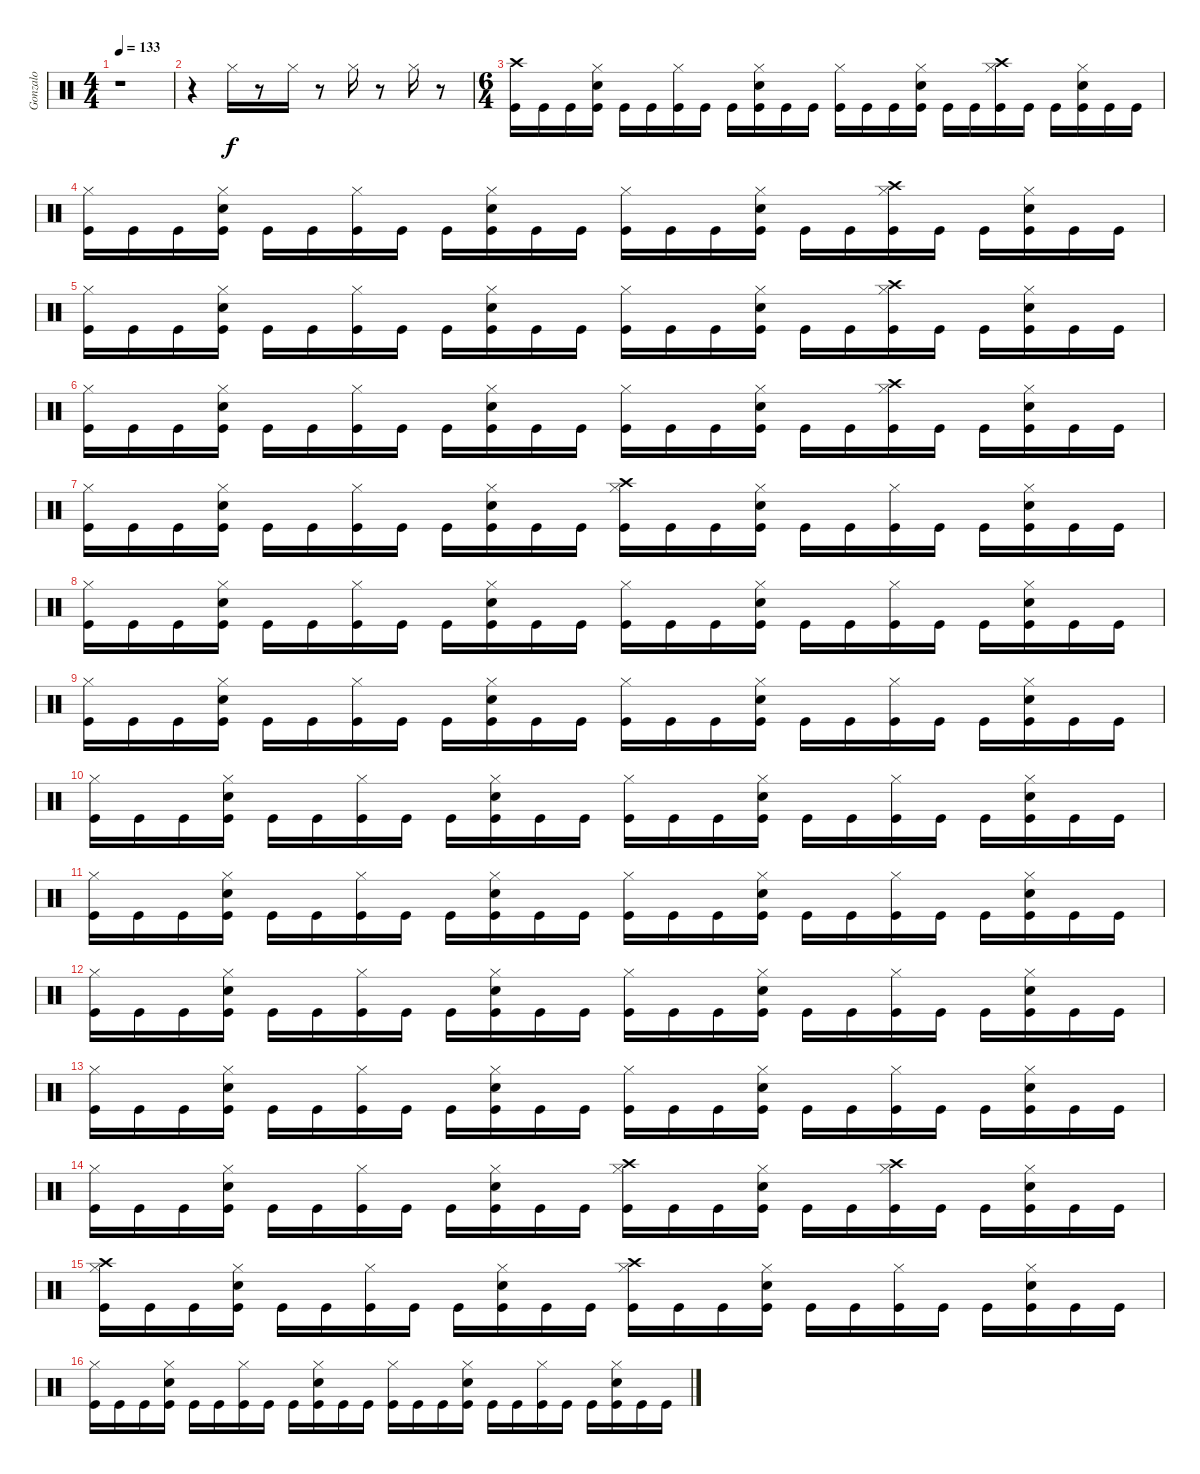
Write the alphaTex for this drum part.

\track ("Gonzalo" "Gonzalo") {instrument percussion}
\staff {score}
\articulation defaults
\ts (4 4)
\tempo 133
\clef neutral
\ks c
r.1{dy f} |
r.4 "Hi-Hat (closed)".16 r.8 "Hi-Hat (closed)".16 r.8 "Hi-Hat (closed)".16 r.8 "Hi-Hat (closed)".16 r.8 |
\ts (6 4)
("Kick (hit)" "Crash high (hit)").16 "Kick (hit)".16 "Kick (hit)".16 ("Kick (hit)" "Hi-Hat (closed)" "Electric Snare (hit)").16 "Kick (hit)".16 "Kick (hit)".16 ("Kick (hit)" "Hi-Hat (closed)").16 "Kick (hit)".16 "Kick (hit)".16 ("Kick (hit)" "Hi-Hat (closed)" "Electric Snare (hit)").16 "Kick (hit)".16 "Kick (hit)".16 ("Kick (hit)" "Hi-Hat (closed)").16 "Kick (hit)".16 "Kick (hit)".16 ("Kick (hit)" "Hi-Hat (closed)" "Electric Snare (hit)").16 "Kick (hit)".16 "Kick (hit)".16 ("Kick (hit)" "Hi-Hat (closed)" "Crash high (hit)").16 "Kick (hit)".16 "Kick (hit)".16 ("Kick (hit)" "Hi-Hat (closed)" "Electric Snare (hit)").16 "Kick (hit)".16 "Kick (hit)".16 |
("Kick (hit)" "Hi-Hat (closed)").16 "Kick (hit)".16 "Kick (hit)".16 ("Kick (hit)" "Hi-Hat (closed)" "Electric Snare (hit)").16 "Kick (hit)".16 "Kick (hit)".16 ("Kick (hit)" "Hi-Hat (closed)").16 "Kick (hit)".16 "Kick (hit)".16 ("Kick (hit)" "Hi-Hat (closed)" "Electric Snare (hit)").16 "Kick (hit)".16 "Kick (hit)".16 ("Kick (hit)" "Hi-Hat (closed)").16 "Kick (hit)".16 "Kick (hit)".16 ("Kick (hit)" "Hi-Hat (closed)" "Electric Snare (hit)").16 "Kick (hit)".16 "Kick (hit)".16 ("Kick (hit)" "Hi-Hat (closed)" "Crash high (hit)").16 "Kick (hit)".16 "Kick (hit)".16 ("Kick (hit)" "Hi-Hat (closed)" "Electric Snare (hit)").16 "Kick (hit)".16 "Kick (hit)".16 |
("Kick (hit)" "Hi-Hat (closed)").16 "Kick (hit)".16 "Kick (hit)".16 ("Kick (hit)" "Hi-Hat (closed)" "Electric Snare (hit)").16 "Kick (hit)".16 "Kick (hit)".16 ("Kick (hit)" "Hi-Hat (closed)").16 "Kick (hit)".16 "Kick (hit)".16 ("Kick (hit)" "Hi-Hat (closed)" "Electric Snare (hit)").16 "Kick (hit)".16 "Kick (hit)".16 ("Kick (hit)" "Hi-Hat (closed)").16 "Kick (hit)".16 "Kick (hit)".16 ("Kick (hit)" "Hi-Hat (closed)" "Electric Snare (hit)").16 "Kick (hit)".16 "Kick (hit)".16 ("Kick (hit)" "Hi-Hat (closed)" "Crash high (hit)").16 "Kick (hit)".16 "Kick (hit)".16 ("Kick (hit)" "Hi-Hat (closed)" "Electric Snare (hit)").16 "Kick (hit)".16 "Kick (hit)".16 |
("Kick (hit)" "Hi-Hat (closed)").16 "Kick (hit)".16 "Kick (hit)".16 ("Kick (hit)" "Hi-Hat (closed)" "Electric Snare (hit)").16 "Kick (hit)".16 "Kick (hit)".16 ("Kick (hit)" "Hi-Hat (closed)").16 "Kick (hit)".16 "Kick (hit)".16 ("Kick (hit)" "Hi-Hat (closed)" "Electric Snare (hit)").16 "Kick (hit)".16 "Kick (hit)".16 ("Kick (hit)" "Hi-Hat (closed)").16 "Kick (hit)".16 "Kick (hit)".16 ("Kick (hit)" "Hi-Hat (closed)" "Electric Snare (hit)").16 "Kick (hit)".16 "Kick (hit)".16 ("Kick (hit)" "Hi-Hat (closed)" "Crash high (hit)").16 "Kick (hit)".16 "Kick (hit)".16 ("Kick (hit)" "Hi-Hat (closed)" "Electric Snare (hit)").16 "Kick (hit)".16 "Kick (hit)".16 |
("Kick (hit)" "Hi-Hat (closed)").16 "Kick (hit)".16 "Kick (hit)".16 ("Kick (hit)" "Hi-Hat (closed)" "Electric Snare (hit)").16 "Kick (hit)".16 "Kick (hit)".16 ("Kick (hit)" "Hi-Hat (closed)").16 "Kick (hit)".16 "Kick (hit)".16 ("Kick (hit)" "Hi-Hat (closed)" "Electric Snare (hit)").16 "Kick (hit)".16 "Kick (hit)".16 ("Kick (hit)" "Hi-Hat (closed)" "Crash high (hit)").16 "Kick (hit)".16 "Kick (hit)".16 ("Kick (hit)" "Hi-Hat (closed)" "Electric Snare (hit)").16 "Kick (hit)".16 "Kick (hit)".16 ("Kick (hit)" "Hi-Hat (closed)").16 "Kick (hit)".16 "Kick (hit)".16 ("Kick (hit)" "Hi-Hat (closed)" "Electric Snare (hit)").16 "Kick (hit)".16 "Kick (hit)".16 |
("Kick (hit)" "Hi-Hat (closed)").16 "Kick (hit)".16 "Kick (hit)".16 ("Kick (hit)" "Hi-Hat (closed)" "Electric Snare (hit)").16 "Kick (hit)".16 "Kick (hit)".16 ("Kick (hit)" "Hi-Hat (closed)").16 "Kick (hit)".16 "Kick (hit)".16 ("Kick (hit)" "Hi-Hat (closed)" "Electric Snare (hit)").16 "Kick (hit)".16 "Kick (hit)".16 ("Kick (hit)" "Hi-Hat (closed)").16 "Kick (hit)".16 "Kick (hit)".16 ("Kick (hit)" "Hi-Hat (closed)" "Electric Snare (hit)").16 "Kick (hit)".16 "Kick (hit)".16 ("Kick (hit)" "Hi-Hat (closed)").16 "Kick (hit)".16 "Kick (hit)".16 ("Kick (hit)" "Hi-Hat (closed)" "Electric Snare (hit)").16 "Kick (hit)".16 "Kick (hit)".16 |
("Kick (hit)" "Hi-Hat (closed)").16 "Kick (hit)".16 "Kick (hit)".16 ("Kick (hit)" "Hi-Hat (closed)" "Electric Snare (hit)").16 "Kick (hit)".16 "Kick (hit)".16 ("Kick (hit)" "Hi-Hat (closed)").16 "Kick (hit)".16 "Kick (hit)".16 ("Kick (hit)" "Hi-Hat (closed)" "Electric Snare (hit)").16 "Kick (hit)".16 "Kick (hit)".16 ("Kick (hit)" "Hi-Hat (closed)").16 "Kick (hit)".16 "Kick (hit)".16 ("Kick (hit)" "Hi-Hat (closed)" "Electric Snare (hit)").16 "Kick (hit)".16 "Kick (hit)".16 ("Kick (hit)" "Hi-Hat (closed)").16 "Kick (hit)".16 "Kick (hit)".16 ("Kick (hit)" "Hi-Hat (closed)" "Electric Snare (hit)").16 "Kick (hit)".16 "Kick (hit)".16 |
("Kick (hit)" "Hi-Hat (closed)").16 "Kick (hit)".16 "Kick (hit)".16 ("Kick (hit)" "Hi-Hat (closed)" "Electric Snare (hit)").16 "Kick (hit)".16 "Kick (hit)".16 ("Kick (hit)" "Hi-Hat (closed)").16 "Kick (hit)".16 "Kick (hit)".16 ("Kick (hit)" "Hi-Hat (closed)" "Electric Snare (hit)").16 "Kick (hit)".16 "Kick (hit)".16 ("Kick (hit)" "Hi-Hat (closed)").16 "Kick (hit)".16 "Kick (hit)".16 ("Kick (hit)" "Hi-Hat (closed)" "Electric Snare (hit)").16 "Kick (hit)".16 "Kick (hit)".16 ("Kick (hit)" "Hi-Hat (closed)").16 "Kick (hit)".16 "Kick (hit)".16 ("Kick (hit)" "Hi-Hat (closed)" "Electric Snare (hit)").16 "Kick (hit)".16 "Kick (hit)".16 |
("Kick (hit)" "Hi-Hat (closed)").16 "Kick (hit)".16 "Kick (hit)".16 ("Kick (hit)" "Hi-Hat (closed)" "Electric Snare (hit)").16 "Kick (hit)".16 "Kick (hit)".16 ("Kick (hit)" "Hi-Hat (closed)").16 "Kick (hit)".16 "Kick (hit)".16 ("Kick (hit)" "Hi-Hat (closed)" "Electric Snare (hit)").16 "Kick (hit)".16 "Kick (hit)".16 ("Kick (hit)" "Hi-Hat (closed)").16 "Kick (hit)".16 "Kick (hit)".16 ("Kick (hit)" "Hi-Hat (closed)" "Electric Snare (hit)").16 "Kick (hit)".16 "Kick (hit)".16 ("Kick (hit)" "Hi-Hat (closed)").16 "Kick (hit)".16 "Kick (hit)".16 ("Kick (hit)" "Hi-Hat (closed)" "Electric Snare (hit)").16 "Kick (hit)".16 "Kick (hit)".16 |
("Kick (hit)" "Hi-Hat (closed)").16 "Kick (hit)".16 "Kick (hit)".16 ("Kick (hit)" "Hi-Hat (closed)" "Electric Snare (hit)").16 "Kick (hit)".16 "Kick (hit)".16 ("Kick (hit)" "Hi-Hat (closed)").16 "Kick (hit)".16 "Kick (hit)".16 ("Kick (hit)" "Hi-Hat (closed)" "Electric Snare (hit)").16 "Kick (hit)".16 "Kick (hit)".16 ("Kick (hit)" "Hi-Hat (closed)").16 "Kick (hit)".16 "Kick (hit)".16 ("Kick (hit)" "Hi-Hat (closed)" "Electric Snare (hit)").16 "Kick (hit)".16 "Kick (hit)".16 ("Kick (hit)" "Hi-Hat (closed)").16 "Kick (hit)".16 "Kick (hit)".16 ("Kick (hit)" "Hi-Hat (closed)" "Electric Snare (hit)").16 "Kick (hit)".16 "Kick (hit)".16 |
("Kick (hit)" "Hi-Hat (closed)").16 "Kick (hit)".16 "Kick (hit)".16 ("Kick (hit)" "Hi-Hat (closed)" "Electric Snare (hit)").16 "Kick (hit)".16 "Kick (hit)".16 ("Kick (hit)" "Hi-Hat (closed)").16 "Kick (hit)".16 "Kick (hit)".16 ("Kick (hit)" "Hi-Hat (closed)" "Electric Snare (hit)").16 "Kick (hit)".16 "Kick (hit)".16 ("Kick (hit)" "Hi-Hat (closed)").16 "Kick (hit)".16 "Kick (hit)".16 ("Kick (hit)" "Hi-Hat (closed)" "Electric Snare (hit)").16 "Kick (hit)".16 "Kick (hit)".16 ("Kick (hit)" "Hi-Hat (closed)").16 "Kick (hit)".16 "Kick (hit)".16 ("Kick (hit)" "Hi-Hat (closed)" "Electric Snare (hit)").16 "Kick (hit)".16 "Kick (hit)".16 |
("Kick (hit)" "Hi-Hat (closed)").16 "Kick (hit)".16 "Kick (hit)".16 ("Kick (hit)" "Hi-Hat (closed)" "Electric Snare (hit)").16 "Kick (hit)".16 "Kick (hit)".16 ("Kick (hit)" "Hi-Hat (closed)").16 "Kick (hit)".16 "Kick (hit)".16 ("Kick (hit)" "Hi-Hat (closed)" "Electric Snare (hit)").16 "Kick (hit)".16 "Kick (hit)".16 ("Kick (hit)" "Hi-Hat (closed)" "Crash high (hit)").16 "Kick (hit)".16 "Kick (hit)".16 ("Kick (hit)" "Hi-Hat (closed)" "Electric Snare (hit)").16 "Kick (hit)".16 "Kick (hit)".16 ("Kick (hit)" "Hi-Hat (closed)" "Crash high (hit)").16 "Kick (hit)".16 "Kick (hit)".16 ("Kick (hit)" "Hi-Hat (closed)" "Electric Snare (hit)").16 "Kick (hit)".16 "Kick (hit)".16 |
("Kick (hit)" "Hi-Hat (closed)" "Crash high (hit)").16 "Kick (hit)".16 "Kick (hit)".16 ("Kick (hit)" "Hi-Hat (closed)" "Electric Snare (hit)").16 "Kick (hit)".16 "Kick (hit)".16 ("Kick (hit)" "Hi-Hat (closed)").16 "Kick (hit)".16 "Kick (hit)".16 ("Kick (hit)" "Hi-Hat (closed)" "Electric Snare (hit)").16 "Kick (hit)".16 "Kick (hit)".16 ("Kick (hit)" "Hi-Hat (closed)" "Crash high (hit)").16 "Kick (hit)".16 "Kick (hit)".16 ("Kick (hit)" "Hi-Hat (closed)" "Electric Snare (hit)").16 "Kick (hit)".16 "Kick (hit)".16 ("Kick (hit)" "Hi-Hat (closed)").16 "Kick (hit)".16 "Kick (hit)".16 ("Kick (hit)" "Hi-Hat (closed)" "Electric Snare (hit)").16 "Kick (hit)".16 "Kick (hit)".16 |
("Kick (hit)" "Hi-Hat (closed)").16 "Kick (hit)".16 "Kick (hit)".16 ("Kick (hit)" "Hi-Hat (closed)" "Electric Snare (hit)").16 "Kick (hit)".16 "Kick (hit)".16 ("Kick (hit)" "Hi-Hat (closed)").16 "Kick (hit)".16 "Kick (hit)".16 ("Kick (hit)" "Hi-Hat (closed)" "Electric Snare (hit)").16 "Kick (hit)".16 "Kick (hit)".16 ("Kick (hit)" "Hi-Hat (closed)").16 "Kick (hit)".16 "Kick (hit)".16 ("Kick (hit)" "Hi-Hat (closed)" "Electric Snare (hit)").16 "Kick (hit)".16 "Kick (hit)".16 ("Kick (hit)" "Hi-Hat (closed)").16 "Kick (hit)".16 "Kick (hit)".16 ("Kick (hit)" "Hi-Hat (closed)" "Electric Snare (hit)").16 "Kick (hit)".16 "Kick (hit)".16
